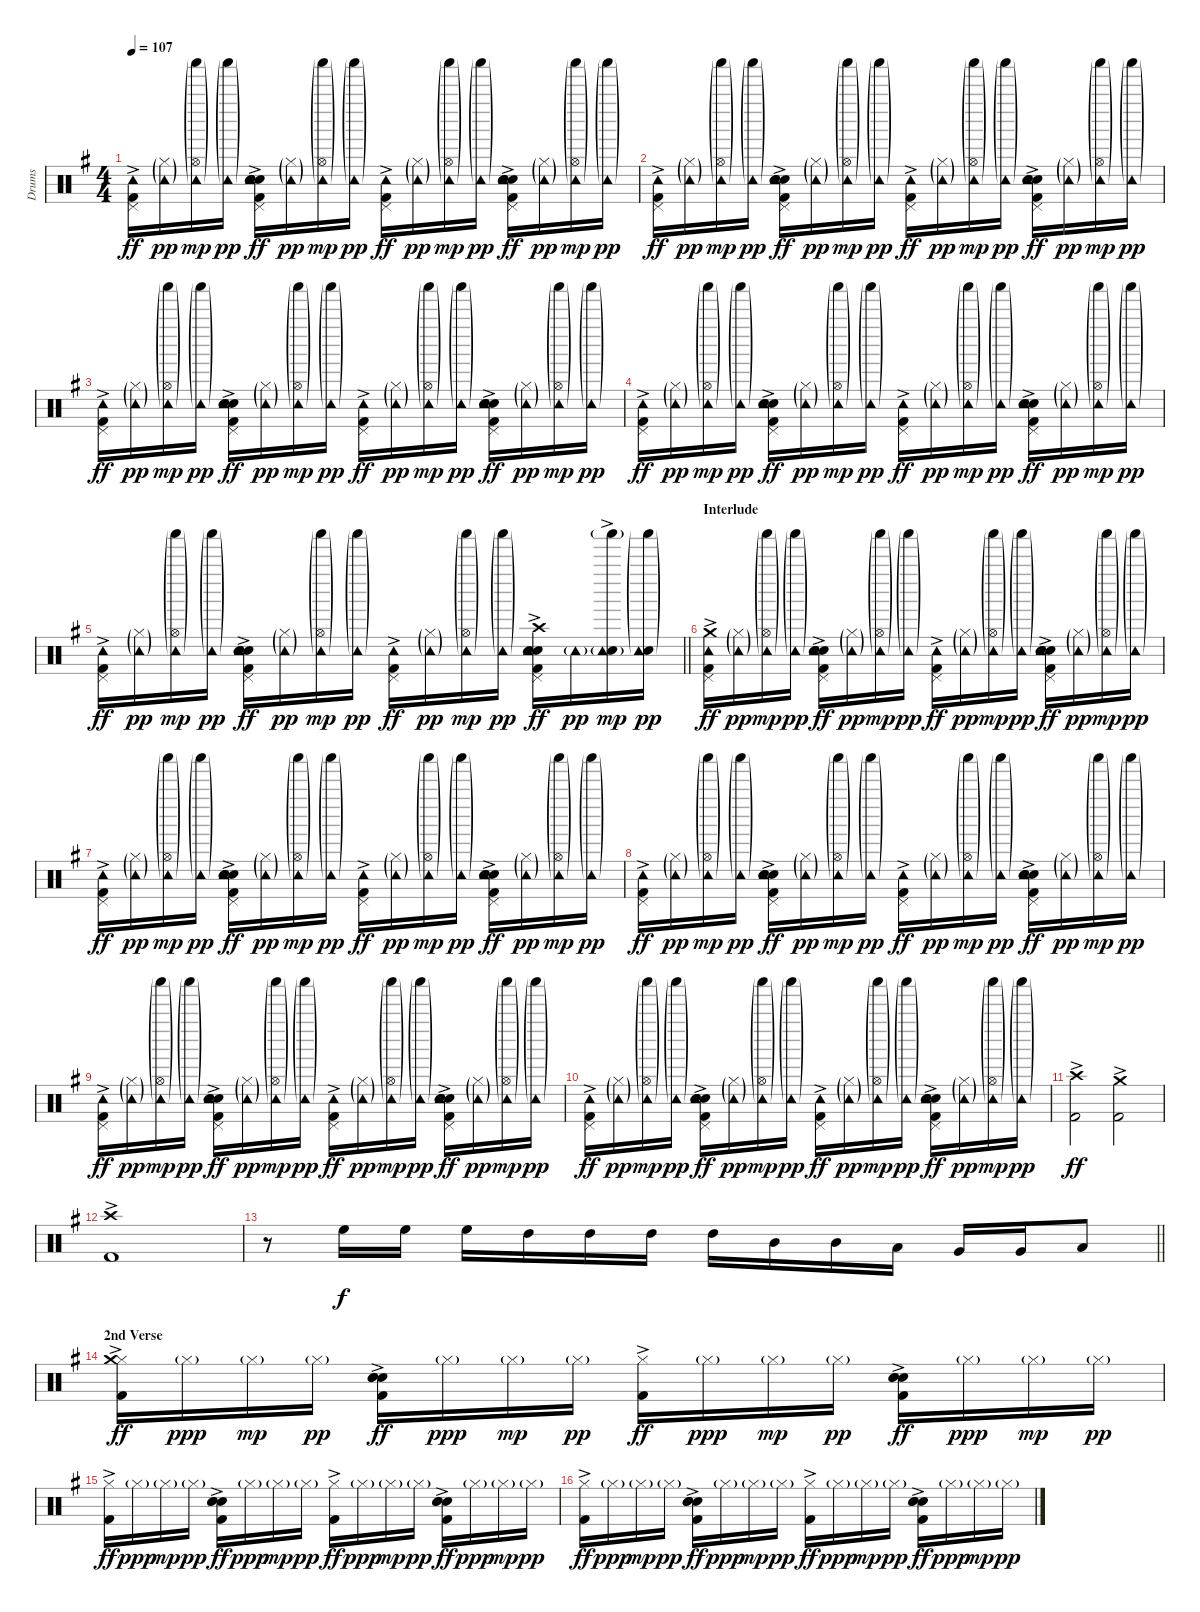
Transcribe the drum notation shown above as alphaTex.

\track ("Drums" "Drums") {instrument percussion}
\staff {score}
\articulation defaults
\ts (4 4)
\tempo 107
\clef neutral
\ks g
("Kick (hit) 2"{ac} "Pedal Hi-Hat (hit)" "Tambourine (hit)").16{dy ff} ("Hi-Hat (closed)"{g} "Tambourine (hit)"{g}).16{dy pp} ("Shaker (hit)"{g} "Hi-Hat (open)"{g} "Tambourine (hit)"{g}).16{dy mp} ("Shaker (hit)"{g} "Tambourine (hit)"{g}).16{dy pp} ("Kick (hit) 2"{ac} "Electric Snare (hit)"{ac} "Snare (hit) 2" "Hand Clap (hit)" "Pedal Hi-Hat (hit)" "Tambourine (hit)").16{dy ff} ("Hi-Hat (closed)"{g} "Tambourine (hit)"{g}).16{dy pp} ("Shaker (hit)"{g} "Hi-Hat (open)"{g} "Tambourine (hit)"{g}).16{dy mp} ("Shaker (hit)"{g} "Tambourine (hit)"{g}).16{dy pp} ("Kick (hit) 2"{ac} "Pedal Hi-Hat (hit)" "Tambourine (hit)").16{dy ff} ("Hi-Hat (closed)"{g} "Tambourine (hit)"{g}).16{dy pp} ("Shaker (hit)"{g} "Hi-Hat (open)"{g} "Tambourine (hit)"{g}).16{dy mp} ("Shaker (hit)"{g} "Tambourine (hit)"{g}).16{dy pp} ("Kick (hit) 2"{ac} "Electric Snare (hit)"{ac} "Snare (hit) 2" "Hand Clap (hit)" "Pedal Hi-Hat (hit)" "Tambourine (hit)").16{dy ff} ("Hi-Hat (closed)"{g} "Tambourine (hit)"{g}).16{dy pp} ("Shaker (hit)"{g} "Hi-Hat (open)"{g} "Tambourine (hit)"{g}).16{dy mp} ("Shaker (hit)"{g} "Tambourine (hit)"{g}).16{dy pp} |
("Kick (hit) 2"{ac} "Pedal Hi-Hat (hit)" "Tambourine (hit)").16{dy ff} ("Hi-Hat (closed)"{g} "Tambourine (hit)"{g}).16{dy pp} ("Shaker (hit)"{g} "Hi-Hat (open)"{g} "Tambourine (hit)"{g}).16{dy mp} ("Shaker (hit)"{g} "Tambourine (hit)"{g}).16{dy pp} ("Kick (hit) 2"{ac} "Electric Snare (hit)"{ac} "Snare (hit) 2" "Hand Clap (hit)" "Pedal Hi-Hat (hit)" "Tambourine (hit)").16{dy ff} ("Hi-Hat (closed)"{g} "Tambourine (hit)"{g}).16{dy pp} ("Shaker (hit)"{g} "Hi-Hat (open)"{g} "Tambourine (hit)"{g}).16{dy mp} ("Shaker (hit)"{g} "Tambourine (hit)"{g}).16{dy pp} ("Kick (hit) 2"{ac} "Pedal Hi-Hat (hit)" "Tambourine (hit)").16{dy ff} ("Hi-Hat (closed)"{g} "Tambourine (hit)"{g}).16{dy pp} ("Shaker (hit)"{g} "Hi-Hat (open)"{g} "Tambourine (hit)"{g}).16{dy mp} ("Shaker (hit)"{g} "Tambourine (hit)"{g}).16{dy pp} ("Kick (hit) 2"{ac} "Electric Snare (hit)"{ac} "Snare (hit) 2" "Hand Clap (hit)" "Pedal Hi-Hat (hit)" "Tambourine (hit)").16{dy ff} ("Hi-Hat (closed)"{g} "Tambourine (hit)"{g}).16{dy pp} ("Shaker (hit)"{g} "Hi-Hat (open)"{g} "Tambourine (hit)"{g}).16{dy mp} ("Shaker (hit)"{g} "Tambourine (hit)"{g}).16{dy pp} |
("Kick (hit) 2"{ac} "Pedal Hi-Hat (hit)" "Tambourine (hit)").16{dy ff} ("Hi-Hat (closed)"{g} "Tambourine (hit)"{g}).16{dy pp} ("Shaker (hit)"{g} "Hi-Hat (open)"{g} "Tambourine (hit)"{g}).16{dy mp} ("Shaker (hit)"{g} "Tambourine (hit)"{g}).16{dy pp} ("Kick (hit) 2"{ac} "Electric Snare (hit)"{ac} "Snare (hit) 2" "Hand Clap (hit)" "Pedal Hi-Hat (hit)" "Tambourine (hit)").16{dy ff} ("Hi-Hat (closed)"{g} "Tambourine (hit)"{g}).16{dy pp} ("Shaker (hit)"{g} "Hi-Hat (open)"{g} "Tambourine (hit)"{g}).16{dy mp} ("Shaker (hit)"{g} "Tambourine (hit)"{g}).16{dy pp} ("Kick (hit) 2"{ac} "Pedal Hi-Hat (hit)" "Tambourine (hit)").16{dy ff} ("Hi-Hat (closed)"{g} "Tambourine (hit)"{g}).16{dy pp} ("Shaker (hit)"{g} "Hi-Hat (open)"{g} "Tambourine (hit)"{g}).16{dy mp} ("Shaker (hit)"{g} "Tambourine (hit)"{g}).16{dy pp} ("Kick (hit) 2"{ac} "Electric Snare (hit)"{ac} "Snare (hit) 2" "Hand Clap (hit)" "Pedal Hi-Hat (hit)" "Tambourine (hit)").16{dy ff} ("Hi-Hat (closed)"{g} "Tambourine (hit)"{g}).16{dy pp} ("Shaker (hit)"{g} "Hi-Hat (open)"{g} "Tambourine (hit)"{g}).16{dy mp} ("Shaker (hit)"{g} "Tambourine (hit)"{g}).16{dy pp} |
("Kick (hit) 2"{ac} "Pedal Hi-Hat (hit)" "Tambourine (hit)").16{dy ff} ("Hi-Hat (closed)"{g} "Tambourine (hit)"{g}).16{dy pp} ("Shaker (hit)"{g} "Hi-Hat (open)"{g} "Tambourine (hit)"{g}).16{dy mp} ("Shaker (hit)"{g} "Tambourine (hit)"{g}).16{dy pp} ("Kick (hit) 2"{ac} "Electric Snare (hit)"{ac} "Snare (hit) 2" "Hand Clap (hit)" "Pedal Hi-Hat (hit)" "Tambourine (hit)").16{dy ff} ("Hi-Hat (closed)"{g} "Tambourine (hit)"{g}).16{dy pp} ("Shaker (hit)"{g} "Hi-Hat (open)"{g} "Tambourine (hit)"{g}).16{dy mp} ("Shaker (hit)"{g} "Tambourine (hit)"{g}).16{dy pp} ("Kick (hit) 2"{ac} "Pedal Hi-Hat (hit)" "Tambourine (hit)").16{dy ff} ("Hi-Hat (closed)"{g} "Tambourine (hit)"{g}).16{dy pp} ("Shaker (hit)"{g} "Hi-Hat (open)"{g} "Tambourine (hit)"{g}).16{dy mp} ("Shaker (hit)"{g} "Tambourine (hit)"{g}).16{dy pp} ("Kick (hit) 2"{ac} "Electric Snare (hit)"{ac} "Snare (hit) 2" "Hand Clap (hit)" "Pedal Hi-Hat (hit)" "Tambourine (hit)").16{dy ff} ("Hi-Hat (closed)"{g} "Tambourine (hit)"{g}).16{dy pp} ("Shaker (hit)"{g} "Hi-Hat (open)"{g} "Tambourine (hit)"{g}).16{dy mp} ("Shaker (hit)"{g} "Tambourine (hit)"{g}).16{dy pp} |
\barLineRight lightlight
("Kick (hit) 2"{ac} "Pedal Hi-Hat (hit)" "Tambourine (hit)").16{dy ff} ("Hi-Hat (closed)"{g} "Tambourine (hit)"{g}).16{dy pp} ("Shaker (hit)"{g} "Hi-Hat (open)"{g} "Tambourine (hit)"{g}).16{dy mp} ("Shaker (hit)"{g} "Tambourine (hit)"{g}).16{dy pp} ("Kick (hit) 2"{ac} "Electric Snare (hit)"{ac} "Snare (hit) 2" "Hand Clap (hit)" "Pedal Hi-Hat (hit)" "Tambourine (hit)").16{dy ff} ("Hi-Hat (closed)"{g} "Tambourine (hit)"{g}).16{dy pp} ("Shaker (hit)"{g} "Hi-Hat (open)"{g} "Tambourine (hit)"{g}).16{dy mp} ("Shaker (hit)"{g} "Tambourine (hit)"{g}).16{dy pp} ("Kick (hit) 2"{ac} "Pedal Hi-Hat (hit)" "Tambourine (hit)").16{dy ff} ("Hi-Hat (closed)"{g} "Tambourine (hit)"{g}).16{dy pp} ("Shaker (hit)"{g} "Hi-Hat (open)"{g} "Tambourine (hit)"{g}).16{dy mp} ("Shaker (hit)"{g} "Tambourine (hit)"{g}).16{dy pp} ("Kick (hit) 2"{ac} "Electric Snare (hit)"{ac} "Crash high (hit)" "Hand Clap (hit)" "Pedal Hi-Hat (hit)" "Tambourine (hit)").16{dy ff} "Tambourine (hit)"{g}.16{dy pp} ("Electric Snare (hit)"{ac} "Shaker (hit)"{g} "Tambourine (hit)"{g}).16{dy mp} ("Electric Snare (hit)"{g} "Shaker (hit)"{g} "Tambourine (hit)"{g}).16{dy pp} |
\section ("" "Interlude")
("Kick (hit) 2"{ac} "Crash medium (hit)" "Pedal Hi-Hat (hit)" "Tambourine (hit)").16{dy ff} ("Hi-Hat (closed)"{g} "Tambourine (hit)"{g}).16{dy pp} ("Shaker (hit)"{g} "Hi-Hat (open)"{g} "Tambourine (hit)"{g}).16{dy mp} ("Shaker (hit)"{g} "Tambourine (hit)"{g}).16{dy pp} ("Kick (hit) 2"{ac} "Electric Snare (hit)"{ac} "Snare (hit) 2" "Hand Clap (hit)" "Pedal Hi-Hat (hit)" "Tambourine (hit)").16{dy ff} ("Hi-Hat (closed)"{g} "Tambourine (hit)"{g}).16{dy pp} ("Shaker (hit)"{g} "Hi-Hat (open)"{g} "Tambourine (hit)"{g}).16{dy mp} ("Shaker (hit)"{g} "Tambourine (hit)"{g}).16{dy pp} ("Kick (hit) 2"{ac} "Pedal Hi-Hat (hit)" "Tambourine (hit)").16{dy ff} ("Hi-Hat (closed)"{g} "Tambourine (hit)"{g}).16{dy pp} ("Shaker (hit)"{g} "Hi-Hat (open)"{g} "Tambourine (hit)"{g}).16{dy mp} ("Shaker (hit)"{g} "Tambourine (hit)"{g}).16{dy pp} ("Kick (hit) 2"{ac} "Electric Snare (hit)"{ac} "Snare (hit) 2" "Hand Clap (hit)" "Pedal Hi-Hat (hit)" "Tambourine (hit)").16{dy ff} ("Hi-Hat (closed)"{g} "Tambourine (hit)"{g}).16{dy pp} ("Shaker (hit)"{g} "Hi-Hat (open)"{g} "Tambourine (hit)"{g}).16{dy mp} ("Shaker (hit)"{g} "Tambourine (hit)"{g}).16{dy pp} |
("Kick (hit) 2"{ac} "Pedal Hi-Hat (hit)" "Tambourine (hit)").16{dy ff} ("Hi-Hat (closed)"{g} "Tambourine (hit)"{g}).16{dy pp} ("Shaker (hit)"{g} "Hi-Hat (open)"{g} "Tambourine (hit)"{g}).16{dy mp} ("Shaker (hit)"{g} "Tambourine (hit)"{g}).16{dy pp} ("Kick (hit) 2"{ac} "Electric Snare (hit)"{ac} "Snare (hit) 2" "Hand Clap (hit)" "Pedal Hi-Hat (hit)" "Tambourine (hit)").16{dy ff} ("Hi-Hat (closed)"{g} "Tambourine (hit)"{g}).16{dy pp} ("Shaker (hit)"{g} "Hi-Hat (open)"{g} "Tambourine (hit)"{g}).16{dy mp} ("Shaker (hit)"{g} "Tambourine (hit)"{g}).16{dy pp} ("Kick (hit) 2"{ac} "Pedal Hi-Hat (hit)" "Tambourine (hit)").16{dy ff} ("Hi-Hat (closed)"{g} "Tambourine (hit)"{g}).16{dy pp} ("Shaker (hit)"{g} "Hi-Hat (open)"{g} "Tambourine (hit)"{g}).16{dy mp} ("Shaker (hit)"{g} "Tambourine (hit)"{g}).16{dy pp} ("Kick (hit) 2"{ac} "Electric Snare (hit)"{ac} "Snare (hit) 2" "Hand Clap (hit)" "Pedal Hi-Hat (hit)" "Tambourine (hit)").16{dy ff} ("Hi-Hat (closed)"{g} "Tambourine (hit)"{g}).16{dy pp} ("Shaker (hit)"{g} "Hi-Hat (open)"{g} "Tambourine (hit)"{g}).16{dy mp} ("Shaker (hit)"{g} "Tambourine (hit)"{g}).16{dy pp} |
("Kick (hit) 2"{ac} "Pedal Hi-Hat (hit)" "Tambourine (hit)").16{dy ff} ("Hi-Hat (closed)"{g} "Tambourine (hit)"{g}).16{dy pp} ("Shaker (hit)"{g} "Hi-Hat (open)"{g} "Tambourine (hit)"{g}).16{dy mp} ("Shaker (hit)"{g} "Tambourine (hit)"{g}).16{dy pp} ("Kick (hit) 2"{ac} "Electric Snare (hit)"{ac} "Snare (hit) 2" "Hand Clap (hit)" "Pedal Hi-Hat (hit)" "Tambourine (hit)").16{dy ff} ("Hi-Hat (closed)"{g} "Tambourine (hit)"{g}).16{dy pp} ("Shaker (hit)"{g} "Hi-Hat (open)"{g} "Tambourine (hit)"{g}).16{dy mp} ("Shaker (hit)"{g} "Tambourine (hit)"{g}).16{dy pp} ("Kick (hit) 2"{ac} "Pedal Hi-Hat (hit)" "Tambourine (hit)").16{dy ff} ("Hi-Hat (closed)"{g} "Tambourine (hit)"{g}).16{dy pp} ("Shaker (hit)"{g} "Hi-Hat (open)"{g} "Tambourine (hit)"{g}).16{dy mp} ("Shaker (hit)"{g} "Tambourine (hit)"{g}).16{dy pp} ("Kick (hit) 2"{ac} "Electric Snare (hit)"{ac} "Snare (hit) 2" "Hand Clap (hit)" "Pedal Hi-Hat (hit)" "Tambourine (hit)").16{dy ff} ("Hi-Hat (closed)"{g} "Tambourine (hit)"{g}).16{dy pp} ("Shaker (hit)"{g} "Hi-Hat (open)"{g} "Tambourine (hit)"{g}).16{dy mp} ("Shaker (hit)"{g} "Tambourine (hit)"{g}).16{dy pp} |
("Kick (hit) 2"{ac} "Pedal Hi-Hat (hit)" "Tambourine (hit)").16{dy ff} ("Hi-Hat (closed)"{g} "Tambourine (hit)"{g}).16{dy pp} ("Shaker (hit)"{g} "Hi-Hat (open)"{g} "Tambourine (hit)"{g}).16{dy mp} ("Shaker (hit)"{g} "Tambourine (hit)"{g}).16{dy pp} ("Kick (hit) 2"{ac} "Electric Snare (hit)"{ac} "Snare (hit) 2" "Hand Clap (hit)" "Pedal Hi-Hat (hit)" "Tambourine (hit)").16{dy ff} ("Hi-Hat (closed)"{g} "Tambourine (hit)"{g}).16{dy pp} ("Shaker (hit)"{g} "Hi-Hat (open)"{g} "Tambourine (hit)"{g}).16{dy mp} ("Shaker (hit)"{g} "Tambourine (hit)"{g}).16{dy pp} ("Kick (hit) 2"{ac} "Pedal Hi-Hat (hit)" "Tambourine (hit)").16{dy ff} ("Hi-Hat (closed)"{g} "Tambourine (hit)"{g}).16{dy pp} ("Shaker (hit)"{g} "Hi-Hat (open)"{g} "Tambourine (hit)"{g}).16{dy mp} ("Shaker (hit)"{g} "Tambourine (hit)"{g}).16{dy pp} ("Kick (hit) 2"{ac} "Electric Snare (hit)"{ac} "Snare (hit) 2" "Hand Clap (hit)" "Pedal Hi-Hat (hit)" "Tambourine (hit)").16{dy ff} ("Hi-Hat (closed)"{g} "Tambourine (hit)"{g}).16{dy pp} ("Shaker (hit)"{g} "Hi-Hat (open)"{g} "Tambourine (hit)"{g}).16{dy mp} ("Shaker (hit)"{g} "Tambourine (hit)"{g}).16{dy pp} |
("Kick (hit) 2"{ac} "Pedal Hi-Hat (hit)" "Tambourine (hit)").16{dy ff} ("Hi-Hat (closed)"{g} "Tambourine (hit)"{g}).16{dy pp} ("Shaker (hit)"{g} "Hi-Hat (open)"{g} "Tambourine (hit)"{g}).16{dy mp} ("Shaker (hit)"{g} "Tambourine (hit)"{g}).16{dy pp} ("Kick (hit) 2"{ac} "Electric Snare (hit)"{ac} "Snare (hit) 2" "Hand Clap (hit)" "Pedal Hi-Hat (hit)" "Tambourine (hit)").16{dy ff} ("Hi-Hat (closed)"{g} "Tambourine (hit)"{g}).16{dy pp} ("Shaker (hit)"{g} "Hi-Hat (open)"{g} "Tambourine (hit)"{g}).16{dy mp} ("Shaker (hit)"{g} "Tambourine (hit)"{g}).16{dy pp} ("Kick (hit) 2"{ac} "Pedal Hi-Hat (hit)" "Tambourine (hit)").16{dy ff} ("Hi-Hat (closed)"{g} "Tambourine (hit)"{g}).16{dy pp} ("Shaker (hit)"{g} "Hi-Hat (open)"{g} "Tambourine (hit)"{g}).16{dy mp} ("Shaker (hit)"{g} "Tambourine (hit)"{g}).16{dy pp} ("Kick (hit) 2"{ac} "Electric Snare (hit)"{ac} "Snare (hit) 2" "Hand Clap (hit)" "Pedal Hi-Hat (hit)" "Tambourine (hit)").16{dy ff} ("Hi-Hat (closed)"{g} "Tambourine (hit)"{g}).16{dy pp} ("Shaker (hit)"{g} "Hi-Hat (open)"{g} "Tambourine (hit)"{g}).16{dy mp} ("Shaker (hit)"{g} "Tambourine (hit)"{g}).16{dy pp} |
("Kick (hit) 2"{ac} "Crash high (hit)").2{dy ff} ("Kick (hit) 2"{ac} "Crash medium (hit)").2 |
("Kick (hit) 2"{ac} "Crash high (hit)").1 |
\barLineRight lightlight
r.8 "High Floor Tom (hit)".16{dy f} "High Floor Tom (hit)".16 "High Floor Tom (hit)".16 "High Tom (hit)".16 "High Tom (hit)".16 "High Tom (hit)".16 "High Tom (hit)".16 "Mid Tom (hit)".16 "Mid Tom (hit)".16 "Low Tom (hit)".16 "Very Low Tom (hit)".16 "Very Low Tom (hit)".16 "Low Floor Tom (hit)".8 |
\section ("" "2nd Verse")
("Hi-Hat (closed)" "Crash medium (hit)" "Kick (hit) 2"{ac}).16{dy ff} "Hi-Hat (closed)"{g}.16{dy ppp} "Hi-Hat (closed)"{g}.16{dy mp} "Hi-Hat (closed)"{g}.16{dy pp} ("Hand Clap (hit)" "Electric Snare (hit)"{ac} "Snare (hit) 2" "Kick (hit) 2"{ac}).16{dy ff} "Hi-Hat (closed)"{g}.16{dy ppp} "Hi-Hat (closed)"{g}.16{dy mp} "Hi-Hat (closed)"{g}.16{dy pp} ("Hi-Hat (closed)" "Kick (hit) 2"{ac}).16{dy ff} "Hi-Hat (closed)"{g}.16{dy ppp} "Hi-Hat (closed)"{g}.16{dy mp} "Hi-Hat (closed)"{g}.16{dy pp} ("Hand Clap (hit)" "Electric Snare (hit)"{ac} "Snare (hit) 2" "Kick (hit) 2"{ac}).16{dy ff} "Hi-Hat (closed)"{g}.16{dy ppp} "Hi-Hat (closed)"{g}.16{dy mp} "Hi-Hat (closed)"{g}.16{dy pp} |
("Hi-Hat (closed)" "Kick (hit) 2"{ac}).16{dy ff} "Hi-Hat (closed)"{g}.16{dy ppp} "Hi-Hat (closed)"{g}.16{dy mp} "Hi-Hat (closed)"{g}.16{dy pp} ("Hand Clap (hit)" "Electric Snare (hit)"{ac} "Snare (hit) 2" "Kick (hit) 2"{ac}).16{dy ff} "Hi-Hat (closed)"{g}.16{dy ppp} "Hi-Hat (closed)"{g}.16{dy mp} "Hi-Hat (closed)"{g}.16{dy pp} ("Hi-Hat (closed)" "Kick (hit) 2"{ac}).16{dy ff} "Hi-Hat (closed)"{g}.16{dy ppp} "Hi-Hat (closed)"{g}.16{dy mp} "Hi-Hat (closed)"{g}.16{dy pp} ("Hand Clap (hit)" "Electric Snare (hit)"{ac} "Snare (hit) 2" "Kick (hit) 2"{ac}).16{dy ff} "Hi-Hat (closed)"{g}.16{dy ppp} "Hi-Hat (closed)"{g}.16{dy mp} "Hi-Hat (closed)"{g}.16{dy pp} |
("Hi-Hat (closed)" "Kick (hit) 2"{ac}).16{dy ff} "Hi-Hat (closed)"{g}.16{dy ppp} "Hi-Hat (closed)"{g}.16{dy mp} "Hi-Hat (closed)"{g}.16{dy pp} ("Hand Clap (hit)" "Electric Snare (hit)"{ac} "Snare (hit) 2" "Kick (hit) 2"{ac}).16{dy ff} "Hi-Hat (closed)"{g}.16{dy ppp} "Hi-Hat (closed)"{g}.16{dy mp} "Hi-Hat (closed)"{g}.16{dy pp} ("Hi-Hat (closed)" "Kick (hit) 2"{ac}).16{dy ff} "Hi-Hat (closed)"{g}.16{dy ppp} "Hi-Hat (closed)"{g}.16{dy mp} "Hi-Hat (closed)"{g}.16{dy pp} ("Hand Clap (hit)" "Electric Snare (hit)"{ac} "Snare (hit) 2" "Kick (hit) 2"{ac}).16{dy ff} "Hi-Hat (closed)"{g}.16{dy ppp} "Hi-Hat (closed)"{g}.16{dy mp} "Hi-Hat (closed)"{g}.16{dy pp}
